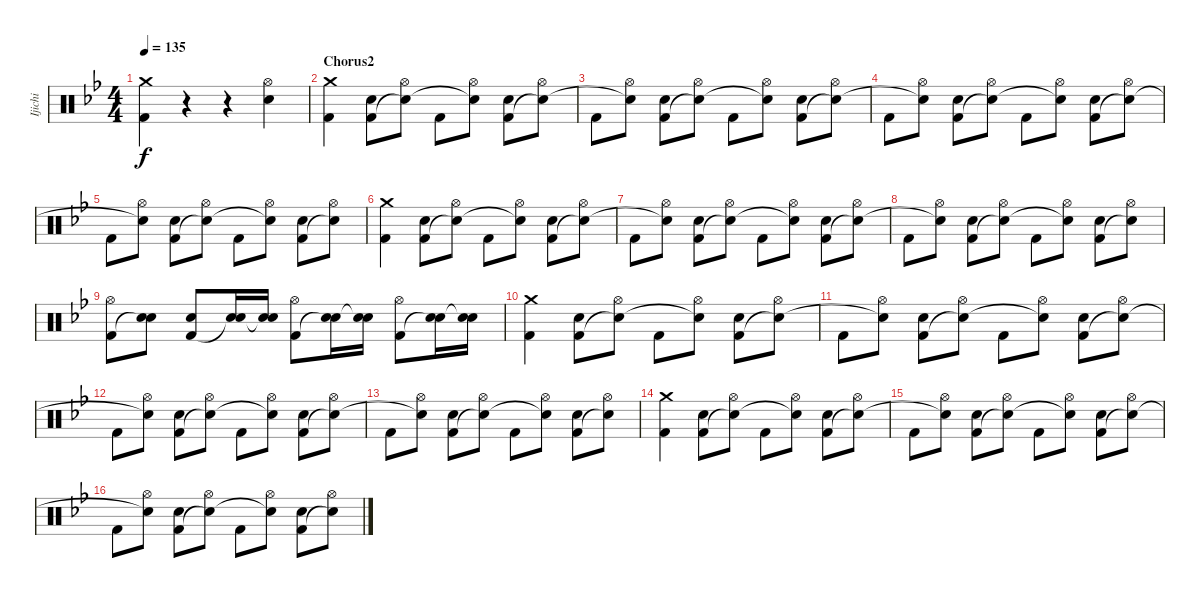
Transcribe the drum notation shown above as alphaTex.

\track ("Ijichi" "Ijichi") {instrument percussion}
\staff {score}
\articulation defaults
\ts (4 4)
\tempo 135
\clef neutral
\ks bb
("Crash medium (hit)" "Kick (hit) 2").4{dy f} r.4 r.4 ("Hi-Hat (open)" "Electric Snare (hit)").4 |
\section ("" "Chorus2")
("Crash medium (hit)" "Kick (hit) 2").4 ("Electric Snare (hit)" "Kick (hit) 2").8 ("Hi-Hat (open)" "Snare (hit)"{t}).8 "Kick (hit) 2".8 ("Hi-Hat (open)" "Snare (hit)"{t}).8 ("Electric Snare (hit)" "Kick (hit) 2").8 ("Hi-Hat (open)" "Snare (hit)"{t}).8 |
"Kick (hit) 2".8 ("Hi-Hat (open)" "Snare (hit)"{t}).8 ("Electric Snare (hit)" "Kick (hit) 2").8 ("Hi-Hat (open)" "Snare (hit)"{t}).8 "Kick (hit) 2".8 ("Hi-Hat (open)" "Snare (hit)"{t}).8 ("Electric Snare (hit)" "Kick (hit) 2").8 ("Hi-Hat (open)" "Snare (hit)"{t}).8 |
"Kick (hit) 2".8 ("Hi-Hat (open)" "Snare (hit)"{t}).8 ("Electric Snare (hit)" "Kick (hit) 2").8 ("Hi-Hat (open)" "Snare (hit)"{t}).8 "Kick (hit) 2".8 ("Hi-Hat (open)" "Snare (hit)"{t}).8 ("Electric Snare (hit)" "Kick (hit) 2").8 ("Hi-Hat (open)" "Snare (hit)"{t}).8 |
"Kick (hit) 2".8 ("Hi-Hat (open)" "Snare (hit)"{t}).8 ("Electric Snare (hit)" "Kick (hit) 2").8 ("Hi-Hat (open)" "Snare (hit)"{t}).8 "Kick (hit) 2".8 ("Hi-Hat (open)" "Snare (hit)"{t}).8 ("Electric Snare (hit)" "Kick (hit) 2").8 ("Hi-Hat (open)" "Snare (hit)"{t}).8 |
("Crash medium (hit)" "Kick (hit) 2").4 ("Electric Snare (hit)" "Kick (hit) 2").8 ("Hi-Hat (open)" "Snare (hit)"{t}).8 "Kick (hit) 2".8 ("Hi-Hat (open)" "Snare (hit)"{t}).8 ("Electric Snare (hit)" "Kick (hit) 2").8 ("Hi-Hat (open)" "Snare (hit)"{t}).8 |
"Kick (hit) 2".8 ("Hi-Hat (open)" "Snare (hit)"{t}).8 ("Electric Snare (hit)" "Kick (hit) 2").8 ("Hi-Hat (open)" "Snare (hit)"{t}).8 "Kick (hit) 2".8 ("Hi-Hat (open)" "Snare (hit)"{t}).8 ("Electric Snare (hit)" "Kick (hit) 2").8 ("Hi-Hat (open)" "Snare (hit)"{t}).8 |
"Kick (hit) 2".8 ("Hi-Hat (open)" "Snare (hit)"{t}).8 ("Electric Snare (hit)" "Kick (hit) 2").8 ("Hi-Hat (open)" "Snare (hit)"{t}).8 "Kick (hit) 2".8 ("Hi-Hat (open)" "Snare (hit)"{t}).8 ("Electric Snare (hit)" "Kick (hit) 2").8 ("Hi-Hat (open)" "Snare (hit)"{t}).8 |
("Hi-Hat (open)" "Kick (hit) 2").8 ("Electric Snare (hit)" "Snare (hit)"{t}).8 ("Electric Snare (hit)" "Kick (hit) 2").8 ("Electric Snare (hit)" "Snare (hit)"{t}).16 ("Electric Snare (hit)" "Snare (hit)"{t}).16 ("Hi-Hat (open)" "Kick (hit) 2").8 ("Electric Snare (hit)" "Snare (hit)"{t}).16 ("Electric Snare (hit)" "Snare (hit)"{t}).16 ("Hi-Hat (open)" "Kick (hit) 2").8 ("Electric Snare (hit)" "Snare (hit)"{t}).16 ("Electric Snare (hit)" "Snare (hit)"{t}).16 |
("Crash medium (hit)" "Kick (hit) 2").4 ("Electric Snare (hit)" "Kick (hit) 2").8 ("Hi-Hat (open)" "Snare (hit)"{t}).8 "Kick (hit) 2".8 ("Hi-Hat (open)" "Snare (hit)"{t}).8 ("Electric Snare (hit)" "Kick (hit) 2").8 ("Hi-Hat (open)" "Snare (hit)"{t}).8 |
"Kick (hit) 2".8 ("Hi-Hat (open)" "Snare (hit)"{t}).8 ("Electric Snare (hit)" "Kick (hit) 2").8 ("Hi-Hat (open)" "Snare (hit)"{t}).8 "Kick (hit) 2".8 ("Hi-Hat (open)" "Snare (hit)"{t}).8 ("Electric Snare (hit)" "Kick (hit) 2").8 ("Hi-Hat (open)" "Snare (hit)"{t}).8 |
"Kick (hit) 2".8 ("Hi-Hat (open)" "Snare (hit)"{t}).8 ("Electric Snare (hit)" "Kick (hit) 2").8 ("Hi-Hat (open)" "Snare (hit)"{t}).8 "Kick (hit) 2".8 ("Hi-Hat (open)" "Snare (hit)"{t}).8 ("Electric Snare (hit)" "Kick (hit) 2").8 ("Hi-Hat (open)" "Snare (hit)"{t}).8 |
"Kick (hit) 2".8 ("Hi-Hat (open)" "Snare (hit)"{t}).8 ("Electric Snare (hit)" "Kick (hit) 2").8 ("Hi-Hat (open)" "Snare (hit)"{t}).8 "Kick (hit) 2".8 ("Hi-Hat (open)" "Snare (hit)"{t}).8 ("Electric Snare (hit)" "Kick (hit) 2").8 ("Hi-Hat (open)" "Snare (hit)"{t}).8 |
("Crash medium (hit)" "Kick (hit) 2").4 ("Electric Snare (hit)" "Kick (hit) 2").8 ("Hi-Hat (open)" "Snare (hit)"{t}).8 "Kick (hit) 2".8 ("Hi-Hat (open)" "Snare (hit)"{t}).8 ("Electric Snare (hit)" "Kick (hit) 2").8 ("Hi-Hat (open)" "Snare (hit)"{t}).8 |
"Kick (hit) 2".8 ("Hi-Hat (open)" "Snare (hit)"{t}).8 ("Electric Snare (hit)" "Kick (hit) 2").8 ("Hi-Hat (open)" "Snare (hit)"{t}).8 "Kick (hit) 2".8 ("Hi-Hat (open)" "Snare (hit)"{t}).8 ("Electric Snare (hit)" "Kick (hit) 2").8 ("Hi-Hat (open)" "Snare (hit)"{t}).8 |
"Kick (hit) 2".8 ("Hi-Hat (open)" "Snare (hit)"{t}).8 ("Electric Snare (hit)" "Kick (hit) 2").8 ("Hi-Hat (open)" "Snare (hit)"{t}).8 "Kick (hit) 2".8 ("Hi-Hat (open)" "Snare (hit)"{t}).8 ("Electric Snare (hit)" "Kick (hit) 2").8 ("Hi-Hat (open)" "Snare (hit)"{t}).8
